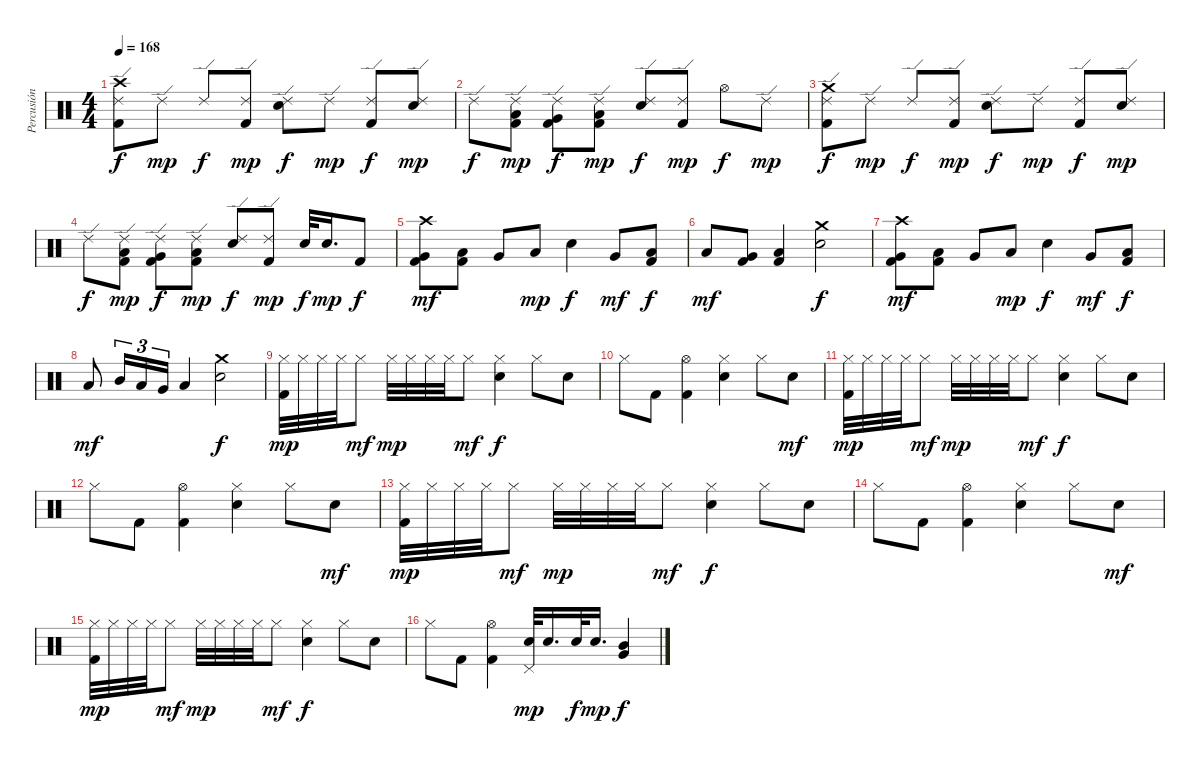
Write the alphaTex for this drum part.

\track ("Percusión" "Percusión") {instrument percussion}
\staff {score}
\articulation defaults
\ts (4 4)
\tempo 168
\clef neutral
\ks c
("Crash high (hit)" "Ride (edge) 2" "Kick (hit) 2").8{dy f} "Ride (edge) 2".8{dy mp} "Ride (edge) 2".8{dy f} ("Ride (edge) 2" "Kick (hit) 2").8{dy mp} ("Ride (edge) 2" "Electric Snare (hit)").8{dy f} "Ride (edge) 2".8{dy mp} ("Ride (edge) 2" "Kick (hit) 2").8{dy f} ("Ride (edge) 2" "Electric Snare (hit)").8{dy mp} |
"Ride (edge) 2".8{dy f} ("Ride (edge) 2" "Low Tom (hit)" "Kick (hit) 2").8{dy mp} ("Ride (edge) 2" "Very Low Tom (hit)" "Kick (hit) 2").8{dy f} ("Ride (edge) 2" "Low Floor Tom (hit)" "Kick (hit) 2").8{dy mp} ("Ride (edge) 2" "Electric Snare (hit)").8{dy f} ("Ride (edge) 2" "Kick (hit) 2").8{dy mp} "Hi-Hat (open)".8{dy f} "Ride (edge) 2".8{dy mp} |
("Crash medium (hit)" "Ride (edge) 2" "Kick (hit) 2").8{dy f} "Ride (edge) 2".8{dy mp} "Ride (edge) 2".8{dy f} ("Ride (edge) 2" "Kick (hit) 2").8{dy mp} ("Ride (edge) 2" "Electric Snare (hit)").8{dy f} "Ride (edge) 2".8{dy mp} ("Ride (edge) 2" "Kick (hit) 2").8{dy f} ("Ride (edge) 2" "Electric Snare (hit)").8{dy mp} |
"Ride (edge) 2".8{dy f} ("Ride (edge) 2" "Low Tom (hit)" "Kick (hit) 2").8{dy mp} ("Ride (edge) 2" "Very Low Tom (hit)" "Kick (hit) 2").8{dy f} ("Ride (edge) 2" "Low Floor Tom (hit)" "Kick (hit) 2").8{dy mp} ("Ride (edge) 2" "Electric Snare (hit)").8{dy f} ("Ride (edge) 2" "Kick (hit) 2").8{dy mp} "Electric Snare (hit)".32{dy f} "Electric Snare (hit)".16{d dy mp} "Kick (hit) 2".8{dy f} |
("Crash high (hit)" "Very Low Tom (hit)" "Kick (hit) 2").8{dy mf} ("Low Tom (hit)" "Kick (hit) 2").8 "Very Low Tom (hit)".8 "Low Floor Tom (hit)".8{dy mp} "Electric Snare (hit)".4{dy f} "Very Low Tom (hit)".8{dy mf} ("Low Tom (hit)" "Kick (hit) 2").8{dy f} |
"Low Floor Tom (hit)".8{dy mf} ("Very Low Tom (hit)" "Kick (hit) 2").8 ("Low Floor Tom (hit)" "Kick (hit) 2").4 ("Crash medium (hit)" "Electric Snare (hit)").2{dy f} |
("Crash high (hit)" "Very Low Tom (hit)" "Kick (hit) 2").8{dy mf} ("Low Tom (hit)" "Kick (hit) 2").8 "Very Low Tom (hit)".8 "Low Floor Tom (hit)".8{dy mp} "Electric Snare (hit)".4{dy f} "Very Low Tom (hit)".8{dy mf} ("Low Tom (hit)" "Kick (hit) 2").8{dy f} |
"Low Floor Tom (hit)".8{dy mf} "Mid Tom (hit)".16{tu (3 2)} "Low Tom (hit)".16{tu (3 2)} "Very Low Tom (hit)".16{tu (3 2)} "Low Floor Tom (hit)".4 ("Crash medium (hit)" "Electric Snare (hit)").2{dy f} |
("Hi-Hat (closed)" "Kick (hit) 2").32{dy mp} "Hi-Hat (closed)".32 "Hi-Hat (closed)".32 "Hi-Hat (closed)".32 "Hi-Hat (closed)".8{dy mf} "Hi-Hat (closed)".32{dy mp} "Hi-Hat (closed)".32 "Hi-Hat (closed)".32 "Hi-Hat (closed)".32 "Hi-Hat (closed)".8{dy mf} ("Hi-Hat (closed)" "Electric Snare (hit)").4{dy f} "Hi-Hat (closed)".8 "Electric Snare (hit)".8 |
"Hi-Hat (closed)".8 "Kick (hit) 2".8 ("Hi-Hat (open)" "Kick (hit) 2").4 ("Hi-Hat (closed)" "Electric Snare (hit)").4 "Hi-Hat (closed)".8 "Electric Snare (hit)".8{dy mf} |
("Hi-Hat (closed)" "Kick (hit) 2").32{dy mp} "Hi-Hat (closed)".32 "Hi-Hat (closed)".32 "Hi-Hat (closed)".32 "Hi-Hat (closed)".8{dy mf} "Hi-Hat (closed)".32{dy mp} "Hi-Hat (closed)".32 "Hi-Hat (closed)".32 "Hi-Hat (closed)".32 "Hi-Hat (closed)".8{dy mf} ("Hi-Hat (closed)" "Electric Snare (hit)").4{dy f} "Hi-Hat (closed)".8 "Electric Snare (hit)".8 |
"Hi-Hat (closed)".8 "Kick (hit) 2".8 ("Hi-Hat (open)" "Kick (hit) 2").4 ("Hi-Hat (closed)" "Electric Snare (hit)").4 "Hi-Hat (closed)".8 "Electric Snare (hit)".8{dy mf} |
("Hi-Hat (closed)" "Kick (hit) 2").32{dy mp} "Hi-Hat (closed)".32 "Hi-Hat (closed)".32 "Hi-Hat (closed)".32 "Hi-Hat (closed)".8{dy mf} "Hi-Hat (closed)".32{dy mp} "Hi-Hat (closed)".32 "Hi-Hat (closed)".32 "Hi-Hat (closed)".32 "Hi-Hat (closed)".8{dy mf} ("Hi-Hat (closed)" "Electric Snare (hit)").4{dy f} "Hi-Hat (closed)".8 "Electric Snare (hit)".8 |
"Hi-Hat (closed)".8 "Kick (hit) 2".8 ("Hi-Hat (open)" "Kick (hit) 2").4 ("Hi-Hat (closed)" "Electric Snare (hit)").4 "Hi-Hat (closed)".8 "Electric Snare (hit)".8{dy mf} |
("Hi-Hat (closed)" "Kick (hit) 2").32{dy mp} "Hi-Hat (closed)".32 "Hi-Hat (closed)".32 "Hi-Hat (closed)".32 "Hi-Hat (closed)".8{dy mf} "Hi-Hat (closed)".32{dy mp} "Hi-Hat (closed)".32 "Hi-Hat (closed)".32 "Hi-Hat (closed)".32 "Hi-Hat (closed)".8{dy mf} ("Hi-Hat (closed)" "Electric Snare (hit)").4{dy f} "Hi-Hat (closed)".8 "Electric Snare (hit)".8 |
"Hi-Hat (closed)".8 "Kick (hit) 2".8 ("Hi-Hat (open)" "Kick (hit) 2").4 ("Pedal Hi-Hat (hit)" "Electric Snare (hit)").32{dy mp} "Electric Snare (hit)".16{d} "Electric Snare (hit)".32{dy f} "Electric Snare (hit)".16{d dy mp} ("Mid Tom (hit)" "Very Low Tom (hit)").4{dy f}
